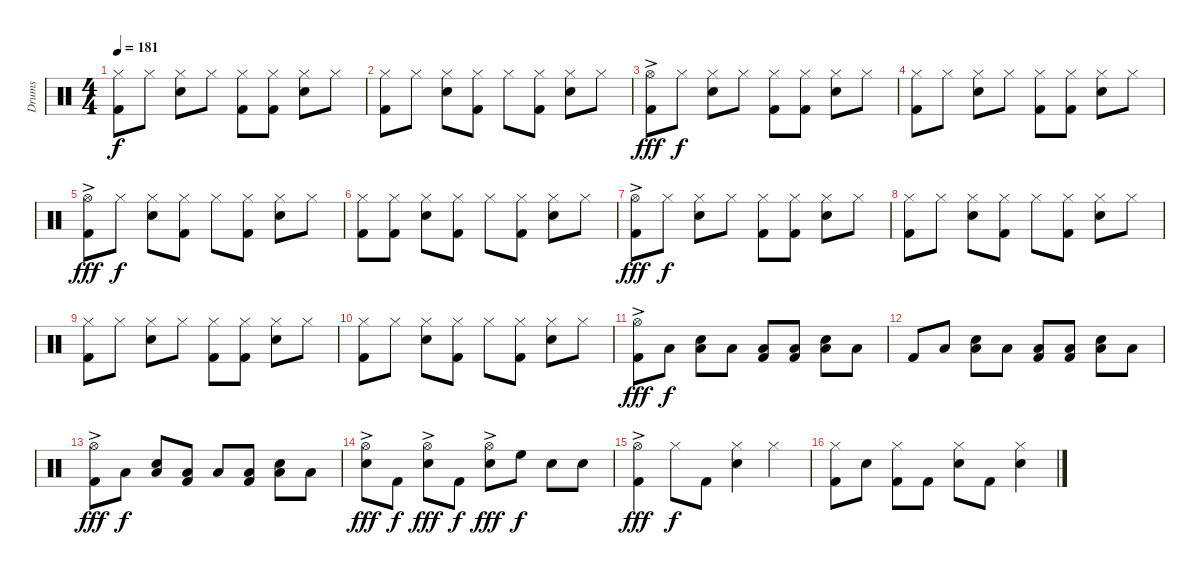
\track ("Drums" "Drums") {instrument percussion}
\staff {score}
\articulation defaults
\ts (4 4)
\tempo 181
\clef neutral
\ks c
("Hi-Hat (closed)" "Kick (hit) 2").8{dy f} "Hi-Hat (closed)".8 ("Hi-Hat (closed)" "Snare (hit) 2").8 "Hi-Hat (closed)".8 ("Hi-Hat (closed)" "Kick (hit) 2").8 ("Hi-Hat (closed)" "Kick (hit) 2").8 ("Hi-Hat (closed)" "Snare (hit) 2").8 "Hi-Hat (closed)".8 |
("Hi-Hat (closed)" "Kick (hit) 2").8 "Hi-Hat (closed)".8 ("Hi-Hat (closed)" "Snare (hit) 2").8 ("Hi-Hat (closed)" "Kick (hit) 2").8 "Hi-Hat (closed)".8 ("Hi-Hat (closed)" "Kick (hit) 2").8 ("Hi-Hat (closed)" "Snare (hit) 2").8 "Hi-Hat (closed)".8 |
("Hi-Hat (open)"{ac} "Kick (hit) 2").8{dy fff} "Hi-Hat (closed)".8{dy f} ("Hi-Hat (closed)" "Snare (hit) 2").8 "Hi-Hat (closed)".8 ("Hi-Hat (closed)" "Kick (hit) 2").8 ("Hi-Hat (closed)" "Kick (hit) 2").8 ("Hi-Hat (closed)" "Snare (hit) 2").8 "Hi-Hat (closed)".8 |
("Hi-Hat (closed)" "Kick (hit) 2").8 "Hi-Hat (closed)".8 ("Hi-Hat (closed)" "Snare (hit) 2").8 "Hi-Hat (closed)".8 ("Hi-Hat (closed)" "Kick (hit) 2").8 ("Hi-Hat (closed)" "Kick (hit) 2").8 ("Hi-Hat (closed)" "Snare (hit) 2").8 "Hi-Hat (closed)".8 |
("Hi-Hat (open)"{ac} "Kick (hit) 2").8{dy fff} "Hi-Hat (closed)".8{dy f} ("Hi-Hat (closed)" "Snare (hit) 2").8 ("Hi-Hat (closed)" "Kick (hit) 2").8 "Hi-Hat (closed)".8 ("Hi-Hat (closed)" "Kick (hit) 2").8 ("Hi-Hat (closed)" "Snare (hit) 2").8 "Hi-Hat (closed)".8 |
("Hi-Hat (closed)" "Kick (hit) 2").8 ("Hi-Hat (closed)" "Kick (hit) 2").8 ("Hi-Hat (closed)" "Snare (hit) 2").8 ("Hi-Hat (closed)" "Kick (hit) 2").8 "Hi-Hat (closed)".8 ("Hi-Hat (closed)" "Kick (hit) 2").8 ("Hi-Hat (closed)" "Snare (hit) 2").8 "Hi-Hat (closed)".8 |
("Hi-Hat (open)"{ac} "Kick (hit) 2").8{dy fff} "Hi-Hat (closed)".8{dy f} ("Hi-Hat (closed)" "Snare (hit) 2").8 "Hi-Hat (closed)".8 ("Hi-Hat (closed)" "Kick (hit) 2").8 ("Hi-Hat (closed)" "Kick (hit) 2").8 ("Hi-Hat (closed)" "Snare (hit) 2").8 "Hi-Hat (closed)".8 |
("Hi-Hat (closed)" "Kick (hit) 2").8 "Hi-Hat (closed)".8 ("Hi-Hat (closed)" "Snare (hit) 2").8 ("Hi-Hat (closed)" "Kick (hit) 2").8 "Hi-Hat (closed)".8 ("Hi-Hat (closed)" "Kick (hit) 2").8 ("Hi-Hat (closed)" "Snare (hit) 2").8 "Hi-Hat (closed)".8 |
("Hi-Hat (closed)" "Kick (hit) 2").8 "Hi-Hat (closed)".8 ("Hi-Hat (closed)" "Snare (hit) 2").8 "Hi-Hat (closed)".8 ("Hi-Hat (closed)" "Kick (hit) 2").8 ("Hi-Hat (closed)" "Kick (hit) 2").8 ("Hi-Hat (closed)" "Snare (hit) 2").8 "Hi-Hat (closed)".8 |
("Hi-Hat (closed)" "Kick (hit) 2").8 "Hi-Hat (closed)".8 ("Hi-Hat (closed)" "Snare (hit) 2").8 ("Hi-Hat (closed)" "Kick (hit) 2").8 "Hi-Hat (closed)".8 ("Hi-Hat (closed)" "Kick (hit) 2").8 ("Hi-Hat (closed)" "Snare (hit) 2").8 "Hi-Hat (closed)".8 |
("Hi-Hat (open)"{ac} "Kick (hit) 2").8{dy fff} "Low Tom (hit)".8{dy f} ("Snare (hit) 2" "Low Tom (hit)").8 "Low Tom (hit)".8 ("Low Tom (hit)" "Kick (hit) 2").8 ("Low Tom (hit)" "Kick (hit) 2").8 ("Snare (hit) 2" "Low Tom (hit)").8 "Low Tom (hit)".8 |
"Kick (hit) 2".8 "Low Tom (hit)".8 ("Snare (hit) 2" "Low Tom (hit)").8 "Low Tom (hit)".8 ("Low Tom (hit)" "Kick (hit) 2").8 ("Low Tom (hit)" "Kick (hit) 2").8 ("Snare (hit) 2" "Low Tom (hit)").8 "Low Tom (hit)".8 |
("Hi-Hat (open)"{ac} "Kick (hit) 2").8{dy fff} "Low Tom (hit)".8{dy f} ("Snare (hit) 2" "Low Tom (hit)").8 ("Low Tom (hit)" "Kick (hit) 2").8 "Low Tom (hit)".8 ("Low Tom (hit)" "Kick (hit) 2").8 ("Snare (hit) 2" "Low Tom (hit)").8 "Low Tom (hit)".8 |
("Hi-Hat (open)"{ac} "Snare (hit) 2").8{dy fff} "Kick (hit) 2".8{dy f} ("Hi-Hat (open)"{ac} "Snare (hit) 2").8{dy fff} "Kick (hit) 2".8{dy f} ("Hi-Hat (open)"{ac} "Snare (hit) 2").8{dy fff} "High Floor Tom (hit)".8{dy f} "Snare (hit) 2".8 "Snare (hit) 2".8 |
("Hi-Hat (open)"{ac} "Kick (hit) 2").4{dy fff} "Hi-Hat (closed)".8{dy f} "Kick (hit) 2".8 ("Hi-Hat (closed)" "Snare (hit) 2").4 "Hi-Hat (closed)".4 |
("Hi-Hat (closed)" "Kick (hit) 2").8 "Snare (hit) 2".8 ("Hi-Hat (closed)" "Kick (hit) 2").8 "Kick (hit) 2".8 ("Hi-Hat (closed)" "Snare (hit) 2").8 "Kick (hit) 2".8 ("Hi-Hat (closed)" "Snare (hit) 2").4
